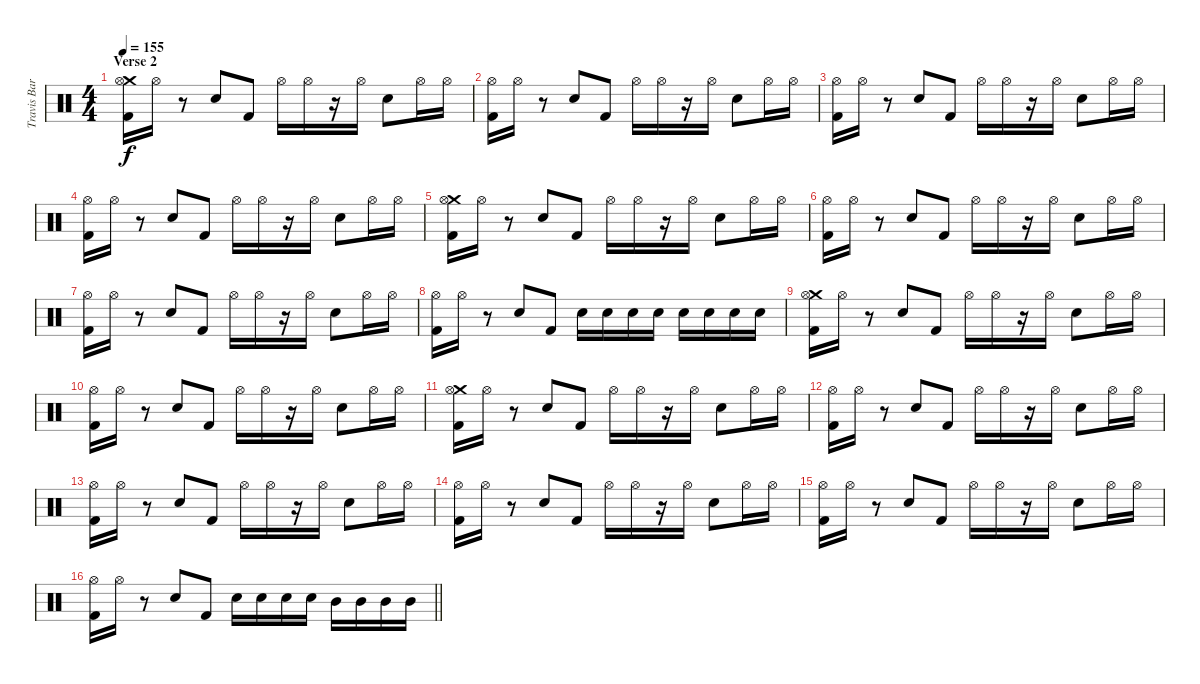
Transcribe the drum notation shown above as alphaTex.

\track ("Travis Barker Drums" "Travis Bar") {mute instrument percussion}
\staff {score}
\articulation defaults
\ts (4 4)
\section ("" "Verse 2")
\tempo 155
\clef neutral
\ks c
("Crash medium (hit)" "Hi-Hat (open)" "Kick (hit) 2").16{dy f} "Hi-Hat (open)".16 r.8 "Electric Snare (hit)".8 "Kick (hit) 2".8 "Hi-Hat (open)".16 "Hi-Hat (open)".16 r.16 "Hi-Hat (open)".16 "Electric Snare (hit)".8 "Hi-Hat (open)".16 "Hi-Hat (open)".16 |
("Hi-Hat (open)" "Kick (hit) 2").16 "Hi-Hat (open)".16 r.8 "Electric Snare (hit)".8 "Kick (hit) 2".8 "Hi-Hat (open)".16 "Hi-Hat (open)".16 r.16 "Hi-Hat (open)".16 "Electric Snare (hit)".8 "Hi-Hat (open)".16 "Hi-Hat (open)".16 |
("Hi-Hat (open)" "Kick (hit) 2").16 "Hi-Hat (open)".16 r.8 "Electric Snare (hit)".8 "Kick (hit) 2".8 "Hi-Hat (open)".16 "Hi-Hat (open)".16 r.16 "Hi-Hat (open)".16 "Electric Snare (hit)".8 "Hi-Hat (open)".16 "Hi-Hat (open)".16 |
("Hi-Hat (open)" "Kick (hit) 2").16 "Hi-Hat (open)".16 r.8 "Electric Snare (hit)".8 "Kick (hit) 2".8 "Hi-Hat (open)".16 "Hi-Hat (open)".16 r.16 "Hi-Hat (open)".16 "Electric Snare (hit)".8 "Hi-Hat (open)".16 "Hi-Hat (open)".16 |
("Crash medium (hit)" "Hi-Hat (open)" "Kick (hit) 2").16 "Hi-Hat (open)".16 r.8 "Electric Snare (hit)".8 "Kick (hit) 2".8 "Hi-Hat (open)".16 "Hi-Hat (open)".16 r.16 "Hi-Hat (open)".16 "Electric Snare (hit)".8 "Hi-Hat (open)".16 "Hi-Hat (open)".16 |
("Hi-Hat (open)" "Kick (hit) 2").16 "Hi-Hat (open)".16 r.8 "Electric Snare (hit)".8 "Kick (hit) 2".8 "Hi-Hat (open)".16 "Hi-Hat (open)".16 r.16 "Hi-Hat (open)".16 "Electric Snare (hit)".8 "Hi-Hat (open)".16 "Hi-Hat (open)".16 |
("Hi-Hat (open)" "Kick (hit) 2").16 "Hi-Hat (open)".16 r.8 "Electric Snare (hit)".8 "Kick (hit) 2".8 "Hi-Hat (open)".16 "Hi-Hat (open)".16 r.16 "Hi-Hat (open)".16 "Electric Snare (hit)".8 "Hi-Hat (open)".16 "Hi-Hat (open)".16 |
("Hi-Hat (open)" "Kick (hit) 2").16 "Hi-Hat (open)".16 r.8 "Electric Snare (hit)".8 "Kick (hit) 2".8 "Electric Snare (hit)".16 "Electric Snare (hit)".16 "Electric Snare (hit)".16 "Electric Snare (hit)".16 "Electric Snare (hit)".16 "Electric Snare (hit)".16 "Electric Snare (hit)".16 "Electric Snare (hit)".16 |
("Crash medium (hit)" "Hi-Hat (open)" "Kick (hit) 2").16 "Hi-Hat (open)".16 r.8 "Electric Snare (hit)".8 "Kick (hit) 2".8 "Hi-Hat (open)".16 "Hi-Hat (open)".16 r.16 "Hi-Hat (open)".16 "Electric Snare (hit)".8 "Hi-Hat (open)".16 "Hi-Hat (open)".16 |
("Hi-Hat (open)" "Kick (hit) 2").16 "Hi-Hat (open)".16 r.8 "Electric Snare (hit)".8 "Kick (hit) 2".8 "Hi-Hat (open)".16 "Hi-Hat (open)".16 r.16 "Hi-Hat (open)".16 "Electric Snare (hit)".8 "Hi-Hat (open)".16 "Hi-Hat (open)".16 |
("Crash medium (hit)" "Hi-Hat (open)" "Kick (hit) 2").16 "Hi-Hat (open)".16 r.8 "Electric Snare (hit)".8 "Kick (hit) 2".8 "Hi-Hat (open)".16 "Hi-Hat (open)".16 r.16 "Hi-Hat (open)".16 "Electric Snare (hit)".8 "Hi-Hat (open)".16 "Hi-Hat (open)".16 |
("Hi-Hat (open)" "Kick (hit) 2").16 "Hi-Hat (open)".16 r.8 "Electric Snare (hit)".8 "Kick (hit) 2".8 "Hi-Hat (open)".16 "Hi-Hat (open)".16 r.16 "Hi-Hat (open)".16 "Electric Snare (hit)".8 "Hi-Hat (open)".16 "Hi-Hat (open)".16 |
("Hi-Hat (open)" "Kick (hit) 2").16 "Hi-Hat (open)".16 r.8 "Electric Snare (hit)".8 "Kick (hit) 2".8 "Hi-Hat (open)".16 "Hi-Hat (open)".16 r.16 "Hi-Hat (open)".16 "Electric Snare (hit)".8 "Hi-Hat (open)".16 "Hi-Hat (open)".16 |
("Hi-Hat (open)" "Kick (hit) 2").16 "Hi-Hat (open)".16 r.8 "Electric Snare (hit)".8 "Kick (hit) 2".8 "Hi-Hat (open)".16 "Hi-Hat (open)".16 r.16 "Hi-Hat (open)".16 "Electric Snare (hit)".8 "Hi-Hat (open)".16 "Hi-Hat (open)".16 |
("Hi-Hat (open)" "Kick (hit) 2").16 "Hi-Hat (open)".16 r.8 "Electric Snare (hit)".8 "Kick (hit) 2".8 "Hi-Hat (open)".16 "Hi-Hat (open)".16 r.16 "Hi-Hat (open)".16 "Electric Snare (hit)".8 "Hi-Hat (open)".16 "Hi-Hat (open)".16 |
\barLineRight lightlight
("Hi-Hat (open)" "Kick (hit) 2").16 "Hi-Hat (open)".16 r.8 "Electric Snare (hit)".8 "Kick (hit) 2".8 "Electric Snare (hit)".16 "Electric Snare (hit)".16 "Electric Snare (hit)".16 "Electric Snare (hit)".16 "Mid Tom (hit)".16 "Mid Tom (hit)".16 "Mid Tom (hit)".16 "Mid Tom (hit)".16
